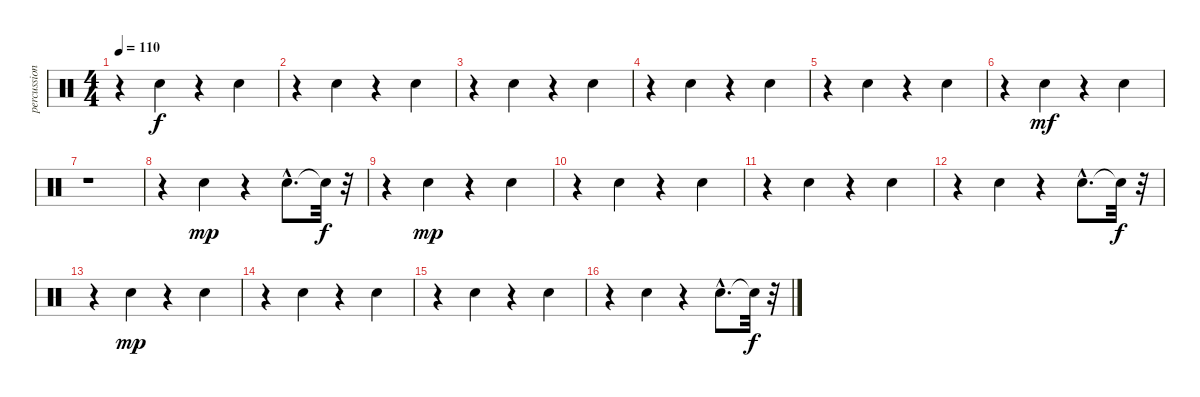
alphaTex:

\track ("percussions 3" "percussion") {instrument percussion}
\staff {score}
\articulation defaults
\ts (4 4)
\tempo 110
\clef neutral
\ks c
r.4{dy f} "Electric Snare (hit)".4 r.4 "Electric Snare (hit)".4 |
r.4 "Electric Snare (hit)".4 r.4 "Electric Snare (hit)".4 |
r.4 "Electric Snare (hit)".4 r.4 "Electric Snare (hit)".4 |
r.4 "Electric Snare (hit)".4 r.4 "Electric Snare (hit)".4 |
r.4 "Electric Snare (hit)".4 r.4 "Electric Snare (hit)".4 |
r.4 "Electric Snare (hit)".4{dy mf} r.4 "Electric Snare (hit)".4 |
r.1 |
r.4 "Electric Snare (hit)".4{dy mp} r.4 "Electric Snare (hit)"{hac}.8{d} "Snare (hit)"{t}.32{dy f} r.32 |
r.4 "Electric Snare (hit)".4{dy mp} r.4 "Electric Snare (hit)".4 |
r.4 "Electric Snare (hit)".4 r.4 "Electric Snare (hit)".4 |
r.4 "Electric Snare (hit)".4 r.4 "Electric Snare (hit)".4 |
r.4 "Electric Snare (hit)".4 r.4 "Electric Snare (hit)"{hac}.8{d} "Snare (hit)"{t}.32{dy f} r.32 |
r.4 "Electric Snare (hit)".4{dy mp} r.4 "Electric Snare (hit)".4 |
r.4 "Electric Snare (hit)".4 r.4 "Electric Snare (hit)".4 |
r.4 "Electric Snare (hit)".4 r.4 "Electric Snare (hit)".4 |
r.4 "Electric Snare (hit)".4 r.4 "Electric Snare (hit)"{hac}.8{d} "Snare (hit)"{t}.32{dy f} r.32
